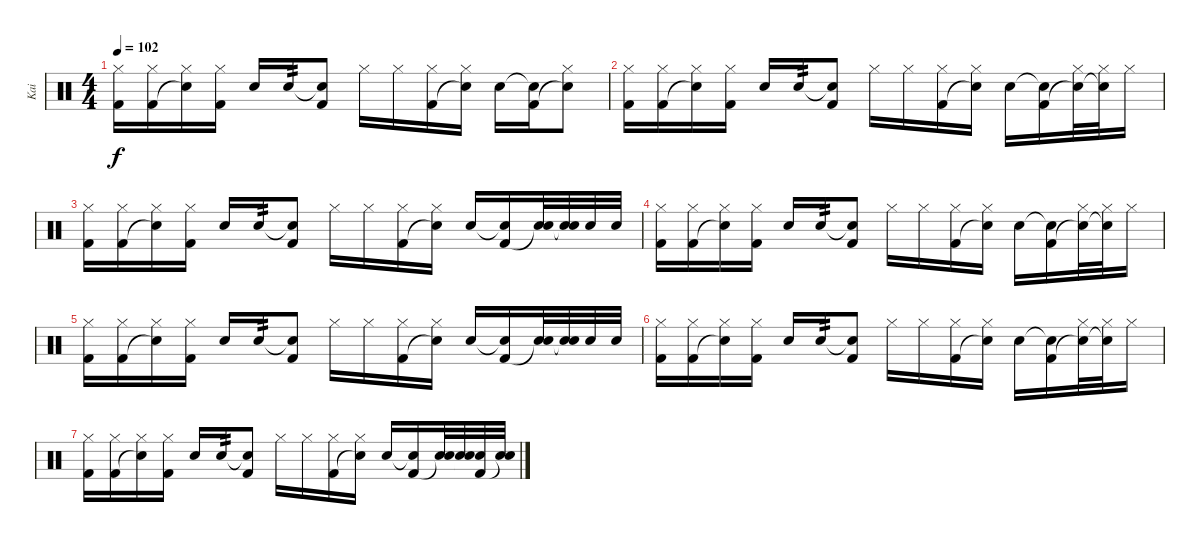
\track ("Kai" "Kai") {instrument percussion}
\staff {score}
\articulation defaults
\ts (4 4)
\tempo 102
\clef neutral
\ks c
("Hi-Hat (closed)" "Kick (hit) 2").16{dy f} ("Hi-Hat (closed)" "Kick (hit) 2").16 ("Hi-Hat (closed)" "Snare (hit)"{t}).16 ("Hi-Hat (closed)" "Kick (hit) 2").16 "Snare (hit) 2".16 "Snare (hit) 2".16{tp 2} ("Snare (hit)"{t} "Kick (hit) 2").8 "Hi-Hat (closed)".16 "Hi-Hat (closed)".16 ("Hi-Hat (closed)" "Kick (hit) 2").16 ("Hi-Hat (closed)" "Snare (hit)"{t}).16 "Snare (hit) 2".16 ("Snare (hit)"{t} "Kick (hit) 2").16 ("Hi-Hat (closed)" "Snare (hit)"{t}).8 |
("Hi-Hat (closed)" "Kick (hit) 2").16 ("Hi-Hat (closed)" "Kick (hit) 2").16 ("Hi-Hat (closed)" "Snare (hit)"{t}).16 ("Hi-Hat (closed)" "Kick (hit) 2").16 "Snare (hit) 2".16 "Snare (hit) 2".16{tp 2} ("Snare (hit)"{t} "Kick (hit) 2").8 "Hi-Hat (closed)".16 "Hi-Hat (closed)".16 ("Hi-Hat (closed)" "Kick (hit) 2").16 ("Hi-Hat (closed)" "Snare (hit)"{t}).16 "Snare (hit) 2".16 ("Snare (hit)"{t} "Kick (hit) 2").16 ("Hi-Hat (closed)" "Snare (hit)"{t}).32 ("Hi-Hat (closed)" "Snare (hit)"{t}).32 "Hi-Hat (closed)".16 |
("Hi-Hat (closed)" "Kick (hit) 2").16 ("Hi-Hat (closed)" "Kick (hit) 2").16 ("Hi-Hat (closed)" "Snare (hit)"{t}).16 ("Hi-Hat (closed)" "Kick (hit) 2").16 "Snare (hit) 2".16 "Snare (hit) 2".16{tp 2} ("Snare (hit)"{t} "Kick (hit) 2").8 "Hi-Hat (closed)".16 "Hi-Hat (closed)".16 ("Hi-Hat (closed)" "Kick (hit) 2").16 ("Hi-Hat (closed)" "Snare (hit)"{t}).16 "Snare (hit) 2".16 ("Snare (hit)"{t} "Kick (hit) 2").16 ("Snare (hit) 2" "Snare (hit)"{t}).32 ("Snare (hit) 2" "Snare (hit)"{t}).32 "Snare (hit) 2".32 "Snare (hit) 2".32 |
("Hi-Hat (closed)" "Kick (hit) 2").16 ("Hi-Hat (closed)" "Kick (hit) 2").16 ("Hi-Hat (closed)" "Snare (hit)"{t}).16 ("Hi-Hat (closed)" "Kick (hit) 2").16 "Snare (hit) 2".16 "Snare (hit) 2".16{tp 2} ("Snare (hit)"{t} "Kick (hit) 2").8 "Hi-Hat (closed)".16 "Hi-Hat (closed)".16 ("Hi-Hat (closed)" "Kick (hit) 2").16 ("Hi-Hat (closed)" "Snare (hit)"{t}).16 "Snare (hit) 2".16 ("Snare (hit)"{t} "Kick (hit) 2").16 ("Hi-Hat (closed)" "Snare (hit)"{t}).32 ("Hi-Hat (closed)" "Snare (hit)"{t}).32 "Hi-Hat (closed)".16 |
("Hi-Hat (closed)" "Kick (hit) 2").16 ("Hi-Hat (closed)" "Kick (hit) 2").16 ("Hi-Hat (closed)" "Snare (hit)"{t}).16 ("Hi-Hat (closed)" "Kick (hit) 2").16 "Snare (hit) 2".16 "Snare (hit) 2".16{tp 2} ("Snare (hit)"{t} "Kick (hit) 2").8 "Hi-Hat (closed)".16 "Hi-Hat (closed)".16 ("Hi-Hat (closed)" "Kick (hit) 2").16 ("Hi-Hat (closed)" "Snare (hit)"{t}).16 "Snare (hit) 2".16 ("Snare (hit)"{t} "Kick (hit) 2").16 ("Snare (hit) 2" "Snare (hit)"{t}).32 ("Snare (hit) 2" "Snare (hit)"{t}).32 "Snare (hit) 2".32 "Snare (hit) 2".32 |
("Hi-Hat (closed)" "Kick (hit) 2").16 ("Hi-Hat (closed)" "Kick (hit) 2").16 ("Hi-Hat (closed)" "Snare (hit)"{t}).16 ("Hi-Hat (closed)" "Kick (hit) 2").16 "Snare (hit) 2".16 "Snare (hit) 2".16{tp 2} ("Snare (hit)"{t} "Kick (hit) 2").8 "Hi-Hat (closed)".16 "Hi-Hat (closed)".16 ("Hi-Hat (closed)" "Kick (hit) 2").16 ("Hi-Hat (closed)" "Snare (hit)"{t}).16 "Snare (hit) 2".16 ("Snare (hit)"{t} "Kick (hit) 2").16 ("Hi-Hat (closed)" "Snare (hit)"{t}).32 ("Hi-Hat (closed)" "Snare (hit)"{t}).32 "Hi-Hat (closed)".16 |
("Hi-Hat (closed)" "Kick (hit) 2").16 ("Hi-Hat (closed)" "Kick (hit) 2").16 ("Hi-Hat (closed)" "Snare (hit)"{t}).16 ("Hi-Hat (closed)" "Kick (hit) 2").16 "Snare (hit) 2".16 "Snare (hit) 2".16{tp 2} ("Snare (hit)"{t} "Kick (hit) 2").8 "Hi-Hat (closed)".16 "Hi-Hat (closed)".16 ("Hi-Hat (closed)" "Kick (hit) 2").16 ("Hi-Hat (closed)" "Snare (hit)"{t}).16 "Snare (hit) 2".16 ("Snare (hit)"{t} "Kick (hit) 2").16 ("Snare (hit) 2" "Snare (hit)"{t}).32 ("Snare (hit) 2" "Snare (hit)"{t}).32 ("Snare (hit) 2" "Kick (hit) 2").32 ("Snare (hit) 2" "Snare (hit)"{t}).32
